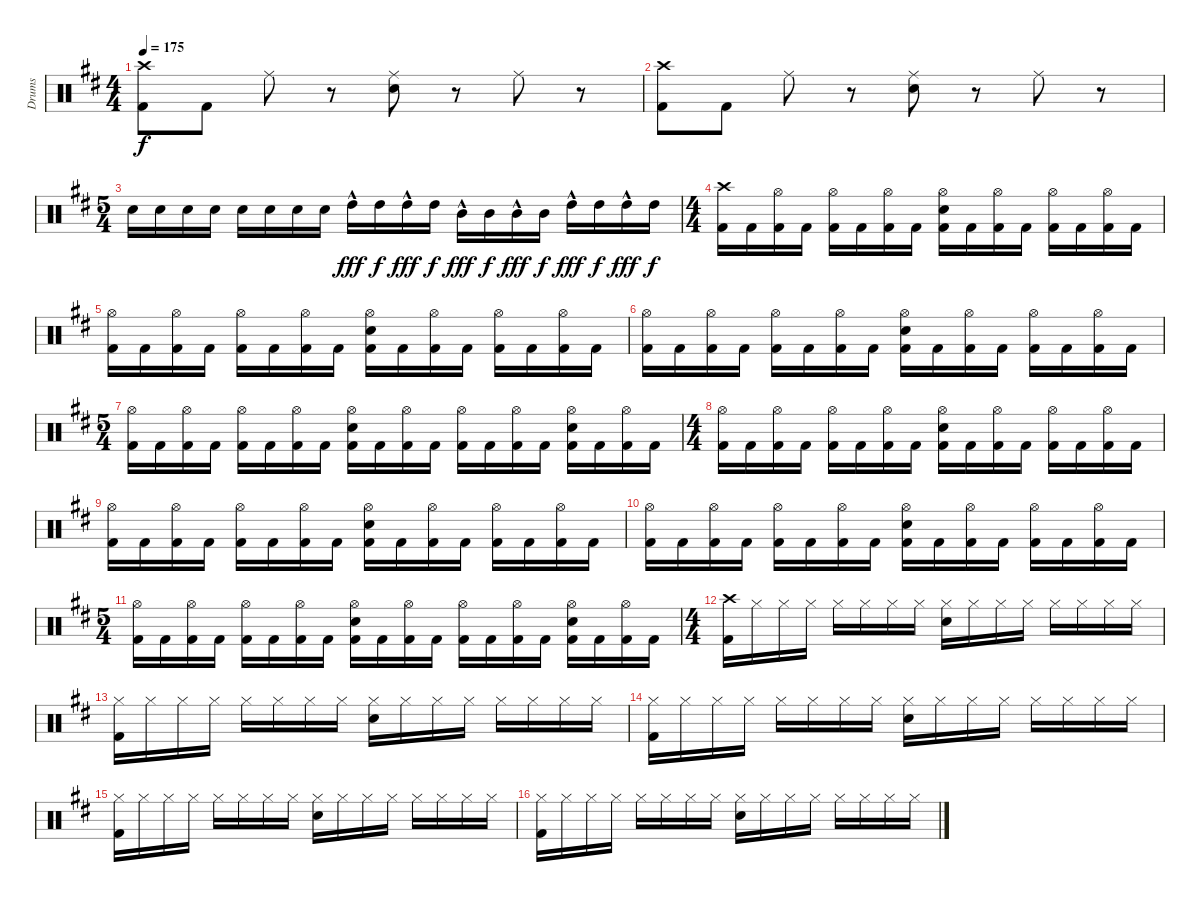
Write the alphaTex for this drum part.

\track ("Drums" "Drums") {instrument percussion}
\staff {score}
\articulation defaults
\ts (4 4)
\tempo 175
\clef neutral
\ks bminor
("Kick (hit) 2" "Crash high (hit)").8{dy f} "Kick (hit) 2".8 "Ride (middle)".8 r.8 ("Electric Snare (hit)" "Ride (middle)").8 r.8 "Ride (middle)".8 r.8 |
("Kick (hit) 2" "Crash high (hit)").8 "Kick (hit) 2".8 "Ride (middle)".8 r.8 ("Electric Snare (hit)" "Ride (middle)").8 r.8 "Ride (middle)".8 r.8 |
\ts (5 4)
"Electric Snare (hit)".16 "Electric Snare (hit)".16 "Electric Snare (hit)".16 "Electric Snare (hit)".16 "Electric Snare (hit)".16 "Electric Snare (hit)".16 "Electric Snare (hit)".16 "Electric Snare (hit)".16 "High Tom (hit)"{hac}.16{dy fff} "High Tom (hit)".16{dy f} "High Tom (hit)"{hac}.16{dy fff} "High Tom (hit)".16{dy f} "Mid Tom (hit)"{hac}.16{dy fff} "Mid Tom (hit)".16{dy f} "Mid Tom (hit)"{hac}.16{dy fff} "Mid Tom (hit)".16{dy f} "High Tom (hit)"{hac}.16{dy fff} "High Tom (hit)".16{dy f} "High Tom (hit)"{hac}.16{dy fff} "High Tom (hit)".16{dy f} |
\ts (4 4)
("Kick (hit) 2" "Crash high (hit)").16 "Kick (hit) 2".16 ("Kick (hit) 2" "Hi-Hat (open)").16 "Kick (hit) 2".16 ("Kick (hit) 2" "Hi-Hat (open)").16 "Kick (hit) 2".16 ("Kick (hit) 2" "Hi-Hat (open)").16 "Kick (hit) 2".16 ("Kick (hit) 2" "Electric Snare (hit)" "Hi-Hat (open)").16 "Kick (hit) 2".16 ("Kick (hit) 2" "Hi-Hat (open)").16 "Kick (hit) 2".16 ("Kick (hit) 2" "Hi-Hat (open)").16 "Kick (hit) 2".16 ("Kick (hit) 2" "Hi-Hat (open)").16 "Kick (hit) 2".16 |
("Kick (hit) 2" "Hi-Hat (open)").16 "Kick (hit) 2".16 ("Kick (hit) 2" "Hi-Hat (open)").16 "Kick (hit) 2".16 ("Kick (hit) 2" "Hi-Hat (open)").16 "Kick (hit) 2".16 ("Kick (hit) 2" "Hi-Hat (open)").16 "Kick (hit) 2".16 ("Kick (hit) 2" "Electric Snare (hit)" "Hi-Hat (open)").16 "Kick (hit) 2".16 ("Kick (hit) 2" "Hi-Hat (open)").16 "Kick (hit) 2".16 ("Kick (hit) 2" "Hi-Hat (open)").16 "Kick (hit) 2".16 ("Kick (hit) 2" "Hi-Hat (open)").16 "Kick (hit) 2".16 |
("Kick (hit) 2" "Hi-Hat (open)").16 "Kick (hit) 2".16 ("Kick (hit) 2" "Hi-Hat (open)").16 "Kick (hit) 2".16 ("Kick (hit) 2" "Hi-Hat (open)").16 "Kick (hit) 2".16 ("Kick (hit) 2" "Hi-Hat (open)").16 "Kick (hit) 2".16 ("Kick (hit) 2" "Electric Snare (hit)" "Hi-Hat (open)").16 "Kick (hit) 2".16 ("Kick (hit) 2" "Hi-Hat (open)").16 "Kick (hit) 2".16 ("Kick (hit) 2" "Hi-Hat (open)").16 "Kick (hit) 2".16 ("Kick (hit) 2" "Hi-Hat (open)").16 "Kick (hit) 2".16 |
\ts (5 4)
("Kick (hit) 2" "Hi-Hat (open)").16 "Kick (hit) 2".16 ("Kick (hit) 2" "Hi-Hat (open)").16 "Kick (hit) 2".16 ("Kick (hit) 2" "Hi-Hat (open)").16 "Kick (hit) 2".16 ("Kick (hit) 2" "Hi-Hat (open)").16 "Kick (hit) 2".16 ("Kick (hit) 2" "Electric Snare (hit)" "Hi-Hat (open)").16 "Kick (hit) 2".16 ("Kick (hit) 2" "Hi-Hat (open)").16 "Kick (hit) 2".16 ("Kick (hit) 2" "Hi-Hat (open)").16 "Kick (hit) 2".16 ("Kick (hit) 2" "Hi-Hat (open)").16 "Kick (hit) 2".16 ("Kick (hit) 2" "Electric Snare (hit)" "Hi-Hat (open)").16 "Kick (hit) 2".16 ("Kick (hit) 2" "Hi-Hat (open)").16 "Kick (hit) 2".16 |
\ts (4 4)
("Kick (hit) 2" "Hi-Hat (open)").16 "Kick (hit) 2".16 ("Kick (hit) 2" "Hi-Hat (open)").16 "Kick (hit) 2".16 ("Kick (hit) 2" "Hi-Hat (open)").16 "Kick (hit) 2".16 ("Kick (hit) 2" "Hi-Hat (open)").16 "Kick (hit) 2".16 ("Kick (hit) 2" "Electric Snare (hit)" "Hi-Hat (open)").16 "Kick (hit) 2".16 ("Kick (hit) 2" "Hi-Hat (open)").16 "Kick (hit) 2".16 ("Kick (hit) 2" "Hi-Hat (open)").16 "Kick (hit) 2".16 ("Kick (hit) 2" "Hi-Hat (open)").16 "Kick (hit) 2".16 |
("Kick (hit) 2" "Hi-Hat (open)").16 "Kick (hit) 2".16 ("Kick (hit) 2" "Hi-Hat (open)").16 "Kick (hit) 2".16 ("Kick (hit) 2" "Hi-Hat (open)").16 "Kick (hit) 2".16 ("Kick (hit) 2" "Hi-Hat (open)").16 "Kick (hit) 2".16 ("Kick (hit) 2" "Electric Snare (hit)" "Hi-Hat (open)").16 "Kick (hit) 2".16 ("Kick (hit) 2" "Hi-Hat (open)").16 "Kick (hit) 2".16 ("Kick (hit) 2" "Hi-Hat (open)").16 "Kick (hit) 2".16 ("Kick (hit) 2" "Hi-Hat (open)").16 "Kick (hit) 2".16 |
("Kick (hit) 2" "Hi-Hat (open)").16 "Kick (hit) 2".16 ("Kick (hit) 2" "Hi-Hat (open)").16 "Kick (hit) 2".16 ("Kick (hit) 2" "Hi-Hat (open)").16 "Kick (hit) 2".16 ("Kick (hit) 2" "Hi-Hat (open)").16 "Kick (hit) 2".16 ("Kick (hit) 2" "Electric Snare (hit)" "Hi-Hat (open)").16 "Kick (hit) 2".16 ("Kick (hit) 2" "Hi-Hat (open)").16 "Kick (hit) 2".16 ("Kick (hit) 2" "Hi-Hat (open)").16 "Kick (hit) 2".16 ("Kick (hit) 2" "Hi-Hat (open)").16 "Kick (hit) 2".16 |
\ts (5 4)
("Kick (hit) 2" "Hi-Hat (open)").16 "Kick (hit) 2".16 ("Kick (hit) 2" "Hi-Hat (open)").16 "Kick (hit) 2".16 ("Kick (hit) 2" "Hi-Hat (open)").16 "Kick (hit) 2".16 ("Kick (hit) 2" "Hi-Hat (open)").16 "Kick (hit) 2".16 ("Kick (hit) 2" "Electric Snare (hit)" "Hi-Hat (open)").16 "Kick (hit) 2".16 ("Kick (hit) 2" "Hi-Hat (open)").16 "Kick (hit) 2".16 ("Kick (hit) 2" "Hi-Hat (open)").16 "Kick (hit) 2".16 ("Kick (hit) 2" "Hi-Hat (open)").16 "Kick (hit) 2".16 ("Kick (hit) 2" "Electric Snare (hit)" "Hi-Hat (open)").16 "Kick (hit) 2".16 ("Kick (hit) 2" "Hi-Hat (open)").16 "Kick (hit) 2".16 |
\ts (4 4)
("Kick (hit) 2" "Crash high (hit)").16 "Hi-Hat (closed)".16 "Hi-Hat (closed)".16 "Hi-Hat (closed)".16 "Hi-Hat (closed)".16 "Hi-Hat (closed)".16 "Hi-Hat (closed)".16 "Hi-Hat (closed)".16 ("Electric Snare (hit)" "Hi-Hat (closed)").16 "Hi-Hat (closed)".16 "Hi-Hat (closed)".16 "Hi-Hat (closed)".16 "Hi-Hat (closed)".16 "Hi-Hat (closed)".16 "Hi-Hat (closed)".16 "Hi-Hat (closed)".16 |
("Kick (hit) 2" "Hi-Hat (closed)").16 "Hi-Hat (closed)".16 "Hi-Hat (closed)".16 "Hi-Hat (closed)".16 "Hi-Hat (closed)".16 "Hi-Hat (closed)".16 "Hi-Hat (closed)".16 "Hi-Hat (closed)".16 ("Electric Snare (hit)" "Hi-Hat (closed)").16 "Hi-Hat (closed)".16 "Hi-Hat (closed)".16 "Hi-Hat (closed)".16 "Hi-Hat (closed)".16 "Hi-Hat (closed)".16 "Hi-Hat (closed)".16 "Hi-Hat (closed)".16 |
("Kick (hit) 2" "Hi-Hat (closed)").16 "Hi-Hat (closed)".16 "Hi-Hat (closed)".16 "Hi-Hat (closed)".16 "Hi-Hat (closed)".16 "Hi-Hat (closed)".16 "Hi-Hat (closed)".16 "Hi-Hat (closed)".16 ("Electric Snare (hit)" "Hi-Hat (closed)").16 "Hi-Hat (closed)".16 "Hi-Hat (closed)".16 "Hi-Hat (closed)".16 "Hi-Hat (closed)".16 "Hi-Hat (closed)".16 "Hi-Hat (closed)".16 "Hi-Hat (closed)".16 |
("Kick (hit) 2" "Hi-Hat (closed)").16 "Hi-Hat (closed)".16 "Hi-Hat (closed)".16 "Hi-Hat (closed)".16 "Hi-Hat (closed)".16 "Hi-Hat (closed)".16 "Hi-Hat (closed)".16 "Hi-Hat (closed)".16 ("Electric Snare (hit)" "Hi-Hat (closed)").16 "Hi-Hat (closed)".16 "Hi-Hat (closed)".16 "Hi-Hat (closed)".16 "Hi-Hat (closed)".16 "Hi-Hat (closed)".16 "Hi-Hat (closed)".16 "Hi-Hat (closed)".16 |
("Kick (hit) 2" "Hi-Hat (closed)").16 "Hi-Hat (closed)".16 "Hi-Hat (closed)".16 "Hi-Hat (closed)".16 "Hi-Hat (closed)".16 "Hi-Hat (closed)".16 "Hi-Hat (closed)".16 "Hi-Hat (closed)".16 ("Electric Snare (hit)" "Hi-Hat (closed)").16 "Hi-Hat (closed)".16 "Hi-Hat (closed)".16 "Hi-Hat (closed)".16 "Hi-Hat (closed)".16 "Hi-Hat (closed)".16 "Hi-Hat (closed)".16 "Hi-Hat (closed)".16
